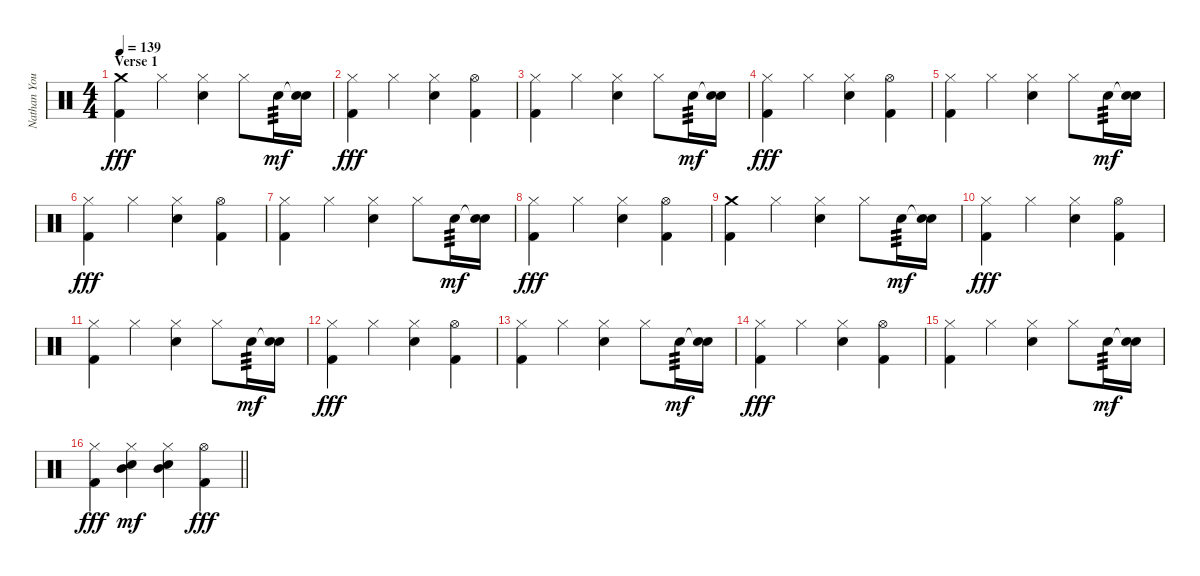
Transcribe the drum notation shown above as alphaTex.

\track ("Nathan Young" "Nathan You") {instrument percussion}
\staff {score}
\articulation defaults
\ts (4 4)
\section ("" "Verse 1")
\tempo 139
\clef neutral
\ks c
("Crash medium (hit)" "Kick (hit) 2").4{dy fff} "Hi-Hat (closed)".4 ("Hi-Hat (closed)" "Electric Snare (hit)").4 "Hi-Hat (closed)".8 "Electric Snare (hit)".16{tp 3 dy mf} ("Snare (hit)"{t} "Electric Snare (hit)").16 |
("Hi-Hat (closed)" "Kick (hit) 2").4{dy fff} "Hi-Hat (closed)".4 ("Hi-Hat (closed)" "Electric Snare (hit)").4 ("Hi-Hat (open)" "Kick (hit) 2").4 |
("Hi-Hat (closed)" "Kick (hit) 2").4 "Hi-Hat (closed)".4 ("Hi-Hat (closed)" "Electric Snare (hit)").4 "Hi-Hat (closed)".8 "Electric Snare (hit)".16{tp 3 dy mf} ("Snare (hit)"{t} "Electric Snare (hit)").16 |
("Hi-Hat (closed)" "Kick (hit) 2").4{dy fff} "Hi-Hat (closed)".4 ("Hi-Hat (closed)" "Electric Snare (hit)").4 ("Hi-Hat (open)" "Kick (hit) 2").4 |
("Hi-Hat (closed)" "Kick (hit) 2").4 "Hi-Hat (closed)".4 ("Hi-Hat (closed)" "Electric Snare (hit)").4 "Hi-Hat (closed)".8 "Electric Snare (hit)".16{tp 3 dy mf} ("Snare (hit)"{t} "Electric Snare (hit)").16 |
("Hi-Hat (closed)" "Kick (hit) 2").4{dy fff} "Hi-Hat (closed)".4 ("Hi-Hat (closed)" "Electric Snare (hit)").4 ("Hi-Hat (open)" "Kick (hit) 2").4 |
("Hi-Hat (closed)" "Kick (hit) 2").4 "Hi-Hat (closed)".4 ("Hi-Hat (closed)" "Electric Snare (hit)").4 "Hi-Hat (closed)".8 "Electric Snare (hit)".16{tp 3 dy mf} ("Snare (hit)"{t} "Electric Snare (hit)").16 |
("Hi-Hat (closed)" "Kick (hit) 2").4{dy fff} "Hi-Hat (closed)".4 ("Hi-Hat (closed)" "Electric Snare (hit)").4 ("Hi-Hat (open)" "Kick (hit) 2").4 |
("Crash medium (hit)" "Kick (hit) 2").4 "Hi-Hat (closed)".4 ("Hi-Hat (closed)" "Electric Snare (hit)").4 "Hi-Hat (closed)".8 "Electric Snare (hit)".16{tp 3 dy mf} ("Snare (hit)"{t} "Electric Snare (hit)").16 |
("Hi-Hat (closed)" "Kick (hit) 2").4{dy fff} "Hi-Hat (closed)".4 ("Hi-Hat (closed)" "Electric Snare (hit)").4 ("Hi-Hat (open)" "Kick (hit) 2").4 |
("Hi-Hat (closed)" "Kick (hit) 2").4 "Hi-Hat (closed)".4 ("Hi-Hat (closed)" "Electric Snare (hit)").4 "Hi-Hat (closed)".8 "Electric Snare (hit)".16{tp 3 dy mf} ("Snare (hit)"{t} "Electric Snare (hit)").16 |
("Hi-Hat (closed)" "Kick (hit) 2").4{dy fff} "Hi-Hat (closed)".4 ("Hi-Hat (closed)" "Electric Snare (hit)").4 ("Hi-Hat (open)" "Kick (hit) 2").4 |
("Hi-Hat (closed)" "Kick (hit) 2").4 "Hi-Hat (closed)".4 ("Hi-Hat (closed)" "Electric Snare (hit)").4 "Hi-Hat (closed)".8 "Electric Snare (hit)".16{tp 3 dy mf} ("Snare (hit)"{t} "Electric Snare (hit)").16 |
("Hi-Hat (closed)" "Kick (hit) 2").4{dy fff} "Hi-Hat (closed)".4 ("Hi-Hat (closed)" "Electric Snare (hit)").4 ("Hi-Hat (open)" "Kick (hit) 2").4 |
("Hi-Hat (closed)" "Kick (hit) 2").4 "Hi-Hat (closed)".4 ("Hi-Hat (closed)" "Electric Snare (hit)").4 "Hi-Hat (closed)".8 "Electric Snare (hit)".16{tp 3 dy mf} ("Snare (hit)"{t} "Electric Snare (hit)").16 |
\barLineRight lightlight
("Hi-Hat (closed)" "Kick (hit) 2").4{dy fff} ("Hi-Hat (closed)" "Electric Snare (hit)" "Mid Tom (hit)").4{dy mf} ("Hi-Hat (closed)" "Electric Snare (hit)" "Mid Tom (hit)").4 ("Hi-Hat (open)" "Kick (hit) 2").4{dy fff}
